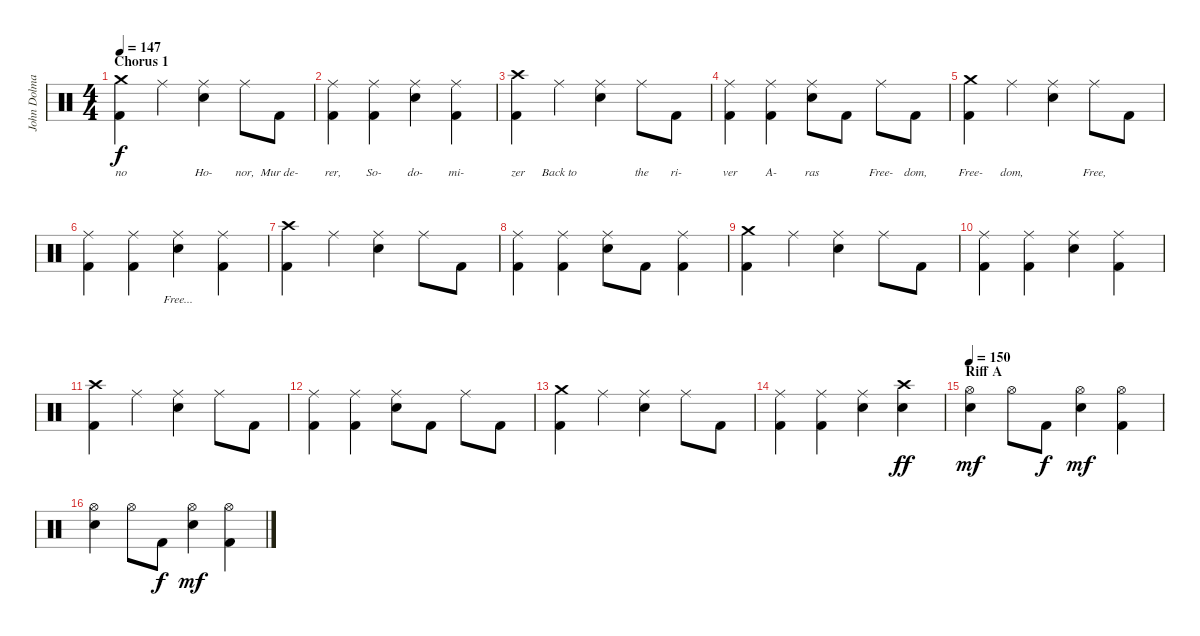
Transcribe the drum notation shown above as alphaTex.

\track ("John Dolmayan" "John Dolma") {instrument percussion}
\staff {score}
\articulation defaults
\ts (4 4)
\section ("" "Chorus 1")
\tempo 147
\clef neutral
\ks c
("Crash medium (hit)" "Kick (hit) 2").4{lyrics (0 "no") lyrics (1 "") lyrics (2 "") lyrics (3 "") lyrics (4 "") dy f} "Ride (middle)".4{lyrics (0 "") lyrics (1 "") lyrics (2 "") lyrics (3 "") lyrics (4 "")} ("Ride (middle)" "Electric Snare (hit)").4{lyrics (0 "Ho-") lyrics (1 "") lyrics (2 "") lyrics (3 "") lyrics (4 "")} "Ride (middle)".8{lyrics (0 "nor,") lyrics (1 "") lyrics (2 "") lyrics (3 "") lyrics (4 "")} "Kick (hit) 2".8{lyrics (0 "Mur de-") lyrics (1 "") lyrics (2 "") lyrics (3 "") lyrics (4 "")} |
("Ride (middle)" "Kick (hit) 2").4{lyrics (0 "rer,") lyrics (1 "") lyrics (2 "") lyrics (3 "") lyrics (4 "")} ("Ride (middle)" "Kick (hit) 2").4{lyrics (0 "So-") lyrics (1 "") lyrics (2 "") lyrics (3 "") lyrics (4 "")} ("Ride (middle)" "Electric Snare (hit)").4{lyrics (0 "do-") lyrics (1 "") lyrics (2 "") lyrics (3 "") lyrics (4 "")} ("Ride (middle)" "Kick (hit) 2").4{lyrics (0 "mi-") lyrics (1 "") lyrics (2 "") lyrics (3 "") lyrics (4 "")} |
("Crash high (hit)" "Kick (hit) 2").4{lyrics (0 "zer") lyrics (1 "") lyrics (2 "") lyrics (3 "") lyrics (4 "")} "Ride (middle)".4{lyrics (0 "Back to") lyrics (1 "") lyrics (2 "") lyrics (3 "") lyrics (4 "")} ("Ride (middle)" "Electric Snare (hit)").4{lyrics (0 "") lyrics (1 "") lyrics (2 "") lyrics (3 "") lyrics (4 "")} "Ride (middle)".8{lyrics (0 "the") lyrics (1 "") lyrics (2 "") lyrics (3 "") lyrics (4 "")} "Kick (hit) 2".8{lyrics (0 "ri-") lyrics (1 "") lyrics (2 "") lyrics (3 "") lyrics (4 "")} |
("Ride (middle)" "Kick (hit) 2").4{lyrics (0 "ver") lyrics (1 "") lyrics (2 "") lyrics (3 "") lyrics (4 "")} ("Ride (middle)" "Kick (hit) 2").4{lyrics (0 "A-") lyrics (1 "") lyrics (2 "") lyrics (3 "") lyrics (4 "")} ("Ride (middle)" "Electric Snare (hit)").8{lyrics (0 "ras") lyrics (1 "") lyrics (2 "") lyrics (3 "") lyrics (4 "")} "Kick (hit) 2".8{lyrics (0 "") lyrics (1 "") lyrics (2 "") lyrics (3 "") lyrics (4 "")} "Ride (middle)".8{lyrics (0 "Free-") lyrics (1 "") lyrics (2 "") lyrics (3 "") lyrics (4 "")} "Kick (hit) 2".8{lyrics (0 "dom,") lyrics (1 "") lyrics (2 "") lyrics (3 "") lyrics (4 "")} |
("Crash medium (hit)" "Kick (hit) 2").4{lyrics (0 "Free-") lyrics (1 "") lyrics (2 "") lyrics (3 "") lyrics (4 "")} "Ride (middle)".4{lyrics (0 "dom,") lyrics (1 "") lyrics (2 "") lyrics (3 "") lyrics (4 "")} ("Ride (middle)" "Electric Snare (hit)").4{lyrics (0 "") lyrics (1 "") lyrics (2 "") lyrics (3 "") lyrics (4 "")} "Ride (middle)".8{lyrics (0 "Free,") lyrics (1 "") lyrics (2 "") lyrics (3 "") lyrics (4 "")} "Kick (hit) 2".8{lyrics (0 "") lyrics (1 "") lyrics (2 "") lyrics (3 "") lyrics (4 "")} |
("Ride (middle)" "Kick (hit) 2").4{lyrics (0 "") lyrics (1 "") lyrics (2 "") lyrics (3 "") lyrics (4 "")} ("Ride (middle)" "Kick (hit) 2").4{lyrics (0 "") lyrics (1 "") lyrics (2 "") lyrics (3 "") lyrics (4 "")} ("Ride (middle)" "Electric Snare (hit)").4{lyrics (0 "Free...") lyrics (1 "") lyrics (2 "") lyrics (3 "") lyrics (4 "")} ("Ride (middle)" "Kick (hit) 2").4 |
("Crash high (hit)" "Kick (hit) 2").4 "Ride (middle)".4 ("Ride (middle)" "Electric Snare (hit)").4 "Ride (middle)".8 "Kick (hit) 2".8 |
("Ride (middle)" "Kick (hit) 2").4 ("Ride (middle)" "Kick (hit) 2").4 ("Ride (middle)" "Electric Snare (hit)").8 "Kick (hit) 2".8 ("Ride (middle)" "Kick (hit) 2").4 |
("Crash medium (hit)" "Kick (hit) 2").4 "Ride (middle)".4 ("Ride (middle)" "Electric Snare (hit)").4 "Ride (middle)".8 "Kick (hit) 2".8 |
("Ride (middle)" "Kick (hit) 2").4 ("Ride (middle)" "Kick (hit) 2").4 ("Ride (middle)" "Electric Snare (hit)").4 ("Ride (middle)" "Kick (hit) 2").4 |
("Crash high (hit)" "Kick (hit) 2").4 "Ride (middle)".4 ("Ride (middle)" "Electric Snare (hit)").4 "Ride (middle)".8 "Kick (hit) 2".8 |
("Ride (middle)" "Kick (hit) 2").4 ("Ride (middle)" "Kick (hit) 2").4 ("Ride (middle)" "Electric Snare (hit)").8 "Kick (hit) 2".8 "Ride (middle)".8 "Kick (hit) 2".8 |
("Crash medium (hit)" "Kick (hit) 2").4 "Ride (middle)".4 ("Ride (middle)" "Electric Snare (hit)").4 "Ride (middle)".8 "Kick (hit) 2".8 |
("Ride (middle)" "Kick (hit) 2").4 ("Ride (middle)" "Kick (hit) 2").4 ("Ride (middle)" "Electric Snare (hit)").4 ("Crash high (hit)" "Electric Snare (hit)").4{dy ff} |
\section ("" "Riff A")
\tempo 150
("Hi-Hat (open)" "Electric Snare (hit)").4{dy mf} "Hi-Hat (open)".8 "Kick (hit) 2".8{dy f} ("Hi-Hat (open)" "Electric Snare (hit)").4{dy mf} ("Hi-Hat (open)" "Kick (hit) 2").4 |
("Hi-Hat (open)" "Electric Snare (hit)").4 "Hi-Hat (open)".8 "Kick (hit) 2".8{dy f} ("Hi-Hat (open)" "Electric Snare (hit)").4{dy mf} ("Hi-Hat (open)" "Kick (hit) 2").4
